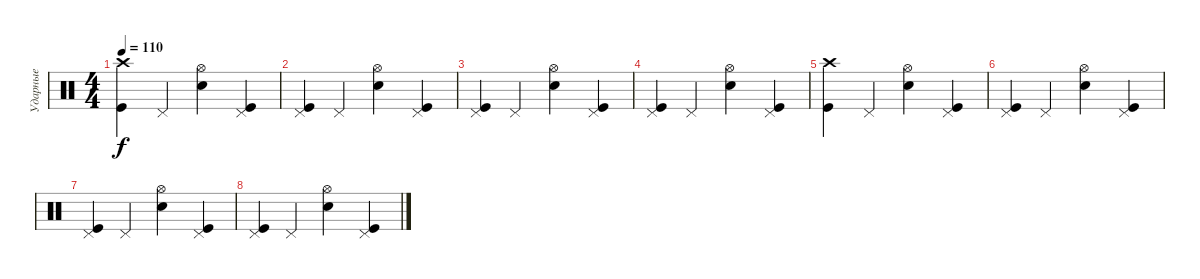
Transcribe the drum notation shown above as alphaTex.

\track ("Ударные" "Ударные") {instrument percussion}
\staff {score}
\articulation defaults
\ts (4 4)
\tempo 110
\clef neutral
\ks c
("Kick (hit)" "Crash high (hit)").4{dy f} "Pedal Hi-Hat (hit)".4 ("Hi-Hat (open)" "Snare (hit) 2").4 ("Kick (hit)" "Pedal Hi-Hat (hit)").4 |
("Kick (hit)" "Pedal Hi-Hat (hit)").4 "Pedal Hi-Hat (hit)".4 ("Hi-Hat (open)" "Snare (hit) 2").4 ("Kick (hit)" "Pedal Hi-Hat (hit)").4 |
("Kick (hit)" "Pedal Hi-Hat (hit)").4 "Pedal Hi-Hat (hit)".4 ("Hi-Hat (open)" "Snare (hit) 2").4 ("Kick (hit)" "Pedal Hi-Hat (hit)").4 |
("Kick (hit)" "Pedal Hi-Hat (hit)").4 "Pedal Hi-Hat (hit)".4 ("Hi-Hat (open)" "Snare (hit) 2").4 ("Kick (hit)" "Pedal Hi-Hat (hit)").4 |
("Kick (hit)" "Crash high (hit)").4 "Pedal Hi-Hat (hit)".4 ("Hi-Hat (open)" "Snare (hit) 2").4 ("Kick (hit)" "Pedal Hi-Hat (hit)").4 |
("Kick (hit)" "Pedal Hi-Hat (hit)").4 "Pedal Hi-Hat (hit)".4 ("Hi-Hat (open)" "Snare (hit) 2").4 ("Kick (hit)" "Pedal Hi-Hat (hit)").4 |
("Kick (hit)" "Pedal Hi-Hat (hit)").4 "Pedal Hi-Hat (hit)".4 ("Hi-Hat (open)" "Snare (hit) 2").4 ("Kick (hit)" "Pedal Hi-Hat (hit)").4 |
("Kick (hit)" "Pedal Hi-Hat (hit)").4 "Pedal Hi-Hat (hit)".4 ("Hi-Hat (open)" "Snare (hit) 2").4 ("Kick (hit)" "Pedal Hi-Hat (hit)").4
